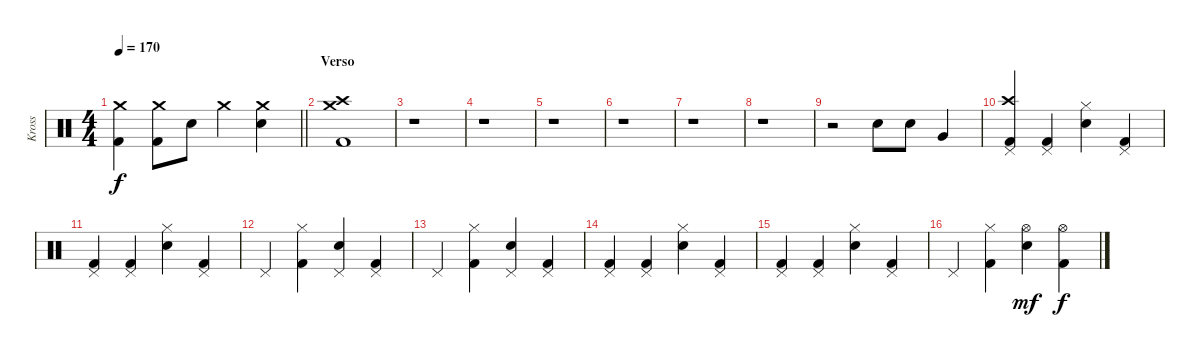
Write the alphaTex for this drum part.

\track ("Kross" "Kross") {instrument percussion}
\staff {score}
\articulation defaults
\ts (4 4)
\tempo 170
\clef neutral
\barLineRight lightlight
\ks c
("Crash medium (hit)" "Kick (hit) 2").4{dy f} ("Crash medium (hit)" "Kick (hit) 2").8 "Electric Snare (hit)".8 "Crash medium (hit)".4 ("Crash medium (hit)" "Electric Snare (hit)").4 |
\section ("" "Verso")
("Crash medium (hit)" "Crash high (hit)" "Kick (hit) 2").1 |
r.1 |
r.1 |
r.1 |
r.1 |
r.1 |
r.1 |
r.2 "Electric Snare (hit)".8 "Electric Snare (hit)".8 "Very Low Tom (hit)".4 |
("Crash high (hit)" "Pedal Hi-Hat (hit)" "Kick (hit) 2").4 ("Pedal Hi-Hat (hit)" "Kick (hit) 2").4 ("Hi-Hat (closed)" "Electric Snare (hit)").4 ("Pedal Hi-Hat (hit)" "Kick (hit) 2").4 |
("Pedal Hi-Hat (hit)" "Kick (hit) 2").4 ("Pedal Hi-Hat (hit)" "Kick (hit) 2").4 ("Hi-Hat (closed)" "Electric Snare (hit)").4 ("Pedal Hi-Hat (hit)" "Kick (hit) 2").4 |
"Pedal Hi-Hat (hit)".4 ("Hi-Hat (closed)" "Kick (hit) 2").4 ("Pedal Hi-Hat (hit)" "Electric Snare (hit)").4 ("Pedal Hi-Hat (hit)" "Kick (hit) 2").4 |
"Pedal Hi-Hat (hit)".4 ("Hi-Hat (closed)" "Kick (hit) 2").4 ("Pedal Hi-Hat (hit)" "Electric Snare (hit)").4 ("Pedal Hi-Hat (hit)" "Kick (hit) 2").4 |
("Pedal Hi-Hat (hit)" "Kick (hit) 2").4 ("Pedal Hi-Hat (hit)" "Kick (hit) 2").4 ("Hi-Hat (closed)" "Electric Snare (hit)").4 ("Pedal Hi-Hat (hit)" "Kick (hit) 2").4 |
("Pedal Hi-Hat (hit)" "Kick (hit) 2").4 ("Pedal Hi-Hat (hit)" "Kick (hit) 2").4 ("Hi-Hat (closed)" "Electric Snare (hit)").4 ("Pedal Hi-Hat (hit)" "Kick (hit) 2").4 |
"Pedal Hi-Hat (hit)".4 ("Hi-Hat (closed)" "Kick (hit) 2").4 ("Hi-Hat (open)" "Electric Snare (hit)").4{dy mf} ("Hi-Hat (open)" "Kick (hit) 2").4{dy f}
